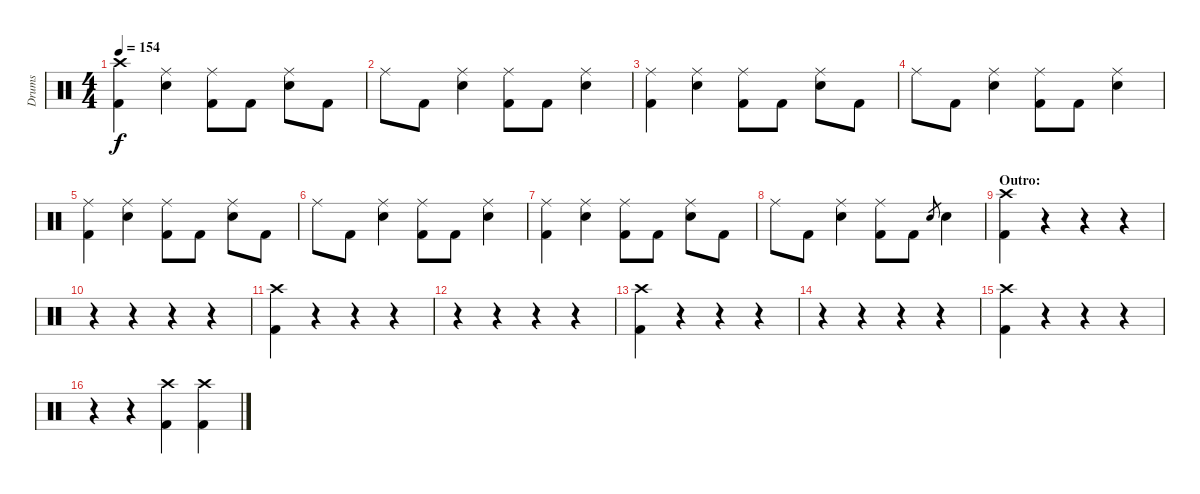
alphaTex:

\track ("Drums" "Drums") {instrument percussion}
\staff {score}
\articulation defaults
\ts (4 4)
\tempo 154
\clef neutral
\ks c
("Crash high (hit)" "Kick (hit) 2").4{dy f} ("Ride (middle)" "Snare (hit) 2").4 ("Ride (middle)" "Kick (hit) 2").8 "Kick (hit) 2".8 ("Ride (middle)" "Snare (hit) 2").8 "Kick (hit) 2".8 |
"Ride (middle)".8 "Kick (hit) 2".8 ("Ride (middle)" "Snare (hit) 2").4 ("Ride (middle)" "Kick (hit) 2").8 "Kick (hit) 2".8 ("Ride (middle)" "Snare (hit) 2").4 |
("Ride (middle)" "Kick (hit) 2").4 ("Ride (middle)" "Snare (hit) 2").4 ("Ride (middle)" "Kick (hit) 2").8 "Kick (hit) 2".8 ("Ride (middle)" "Snare (hit) 2").8 "Kick (hit) 2".8 |
"Ride (middle)".8 "Kick (hit) 2".8 ("Ride (middle)" "Snare (hit) 2").4 ("Ride (middle)" "Kick (hit) 2").8 "Kick (hit) 2".8 ("Ride (middle)" "Snare (hit) 2").4 |
("Ride (middle)" "Kick (hit) 2").4 ("Ride (middle)" "Snare (hit) 2").4 ("Ride (middle)" "Kick (hit) 2").8 "Kick (hit) 2".8 ("Ride (middle)" "Snare (hit) 2").8 "Kick (hit) 2".8 |
"Ride (middle)".8 "Kick (hit) 2".8 ("Ride (middle)" "Snare (hit) 2").4 ("Ride (middle)" "Kick (hit) 2").8 "Kick (hit) 2".8 ("Ride (middle)" "Snare (hit) 2").4 |
("Ride (middle)" "Kick (hit) 2").4 ("Ride (middle)" "Snare (hit) 2").4 ("Ride (middle)" "Kick (hit) 2").8 "Kick (hit) 2".8 ("Ride (middle)" "Snare (hit) 2").8 "Kick (hit) 2".8 |
"Ride (middle)".8 "Kick (hit) 2".8 ("Ride (middle)" "Snare (hit) 2").4 ("Ride (middle)" "Kick (hit) 2").8 "Kick (hit) 2".8 "Snare (hit) 2".8{gr} "Snare (hit) 2".4 |
\section ("" "Outro:")
("Crash high (hit)" "Kick (hit) 2").4 r.4 r.4 r.4 |
r.4 r.4 r.4 r.4 |
("Crash high (hit)" "Kick (hit) 2").4 r.4 r.4 r.4 |
r.4 r.4 r.4 r.4 |
("Crash high (hit)" "Kick (hit) 2").4 r.4 r.4 r.4 |
r.4 r.4 r.4 r.4 |
("Crash high (hit)" "Kick (hit) 2").4 r.4 r.4 r.4 |
r.4 r.4 ("Crash high (hit)" "Kick (hit) 2").4 ("Crash high (hit)" "Kick (hit) 2").4
